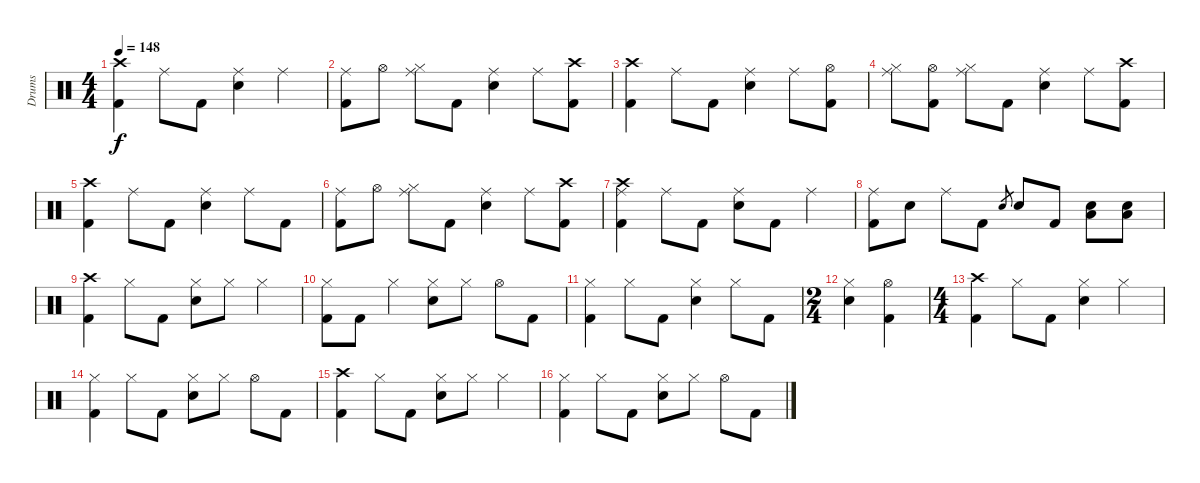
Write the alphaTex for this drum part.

\track ("Drums" "Drums") {instrument percussion}
\staff {score}
\articulation defaults
\ts (4 4)
\tempo 148
\clef neutral
\ks c
("Crash high (hit)" "Kick (hit) 2").4{dy f} "Ride (middle)".8 "Kick (hit) 2".8 ("Ride (middle)" "Electric Snare (hit)").4 "Ride (middle)".4 |
("Ride (middle)" "Kick (hit) 2").8 "Hi-Hat (open)".8 ("Ride (middle)" "Hi-Hat (closed)").8 "Kick (hit) 2".8 ("Ride (middle)" "Electric Snare (hit)").4 "Ride (middle)".8 ("Crash high (hit)" "Kick (hit) 2").8 |
("Crash high (hit)" "Kick (hit) 2").4 "Ride (middle)".8 "Kick (hit) 2".8 ("Ride (middle)" "Electric Snare (hit)").4 "Ride (middle)".8 ("Hi-Hat (open)" "Kick (hit) 2").8 |
("Ride (middle)" "Hi-Hat (closed)").8 ("Hi-Hat (open)" "Kick (hit) 2").8 ("Ride (middle)" "Hi-Hat (closed)").8 "Kick (hit) 2".8 ("Ride (middle)" "Electric Snare (hit)").4 "Ride (middle)".8 ("Crash high (hit)" "Kick (hit) 2").8 |
("Crash high (hit)" "Kick (hit) 2").4 "Ride (middle)".8 "Kick (hit) 2".8 ("Ride (middle)" "Electric Snare (hit)").4 "Ride (middle)".8 "Kick (hit) 2".8 |
("Ride (middle)" "Kick (hit) 2").8 "Hi-Hat (open)".8 ("Ride (middle)" "Hi-Hat (closed)").8 "Kick (hit) 2".8 ("Ride (middle)" "Electric Snare (hit)").4 "Ride (middle)".8 ("Crash high (hit)" "Kick (hit) 2").8 |
("Crash high (hit)" "Ride (middle)" "Kick (hit) 2").4 "Ride (middle)".8 "Kick (hit) 2".8 ("Ride (middle)" "Electric Snare (hit)").8 "Kick (hit) 2".8 "Ride (middle)".4 |
("Ride (middle)" "Kick (hit) 2").8 "Electric Snare (hit)".8 "Ride (middle)".8 "Kick (hit) 2".8 "Electric Snare (hit)".8{gr} "Electric Snare (hit)".8 "Kick (hit) 2".8 ("Electric Snare (hit)" "Low Floor Tom (hit)").8 ("Electric Snare (hit)" "Low Floor Tom (hit)").8 |
("Crash high (hit)" "Kick (hit) 2").4 "Hi-Hat (closed)".8 "Kick (hit) 2".8 ("Hi-Hat (closed)" "Electric Snare (hit)").8 "Hi-Hat (closed)".8 "Hi-Hat (closed)".4 |
("Hi-Hat (closed)" "Kick (hit) 2").8 "Kick (hit) 2".8 "Hi-Hat (closed)".4 ("Hi-Hat (closed)" "Electric Snare (hit)").8 "Hi-Hat (closed)".8 "Hi-Hat (open)".8 "Kick (hit) 2".8 |
("Hi-Hat (closed)" "Kick (hit) 2").4 "Hi-Hat (closed)".8 "Kick (hit) 2".8 ("Hi-Hat (closed)" "Electric Snare (hit)").4 "Hi-Hat (closed)".8 "Kick (hit) 2".8 |
\ts (2 4)
("Hi-Hat (closed)" "Electric Snare (hit)").4 ("Hi-Hat (open)" "Kick (hit) 2").4 |
\ts (4 4)
("Crash high (hit)" "Kick (hit) 2").4 "Hi-Hat (closed)".8 "Kick (hit) 2".8 ("Hi-Hat (closed)" "Electric Snare (hit)").4 "Hi-Hat (closed)".4 |
("Hi-Hat (closed)" "Kick (hit) 2").4 "Hi-Hat (closed)".8 "Kick (hit) 2".8 ("Hi-Hat (closed)" "Electric Snare (hit)").8 "Hi-Hat (closed)".8 "Hi-Hat (open)".8 "Kick (hit) 2".8 |
("Crash high (hit)" "Kick (hit) 2").4 "Hi-Hat (closed)".8 "Kick (hit) 2".8 ("Hi-Hat (closed)" "Electric Snare (hit)").8 "Hi-Hat (closed)".8 "Hi-Hat (closed)".4 |
("Hi-Hat (closed)" "Kick (hit) 2").4 "Hi-Hat (closed)".8 "Kick (hit) 2".8 ("Hi-Hat (closed)" "Electric Snare (hit)").8 "Hi-Hat (closed)".8 "Hi-Hat (open)".8 "Kick (hit) 2".8
